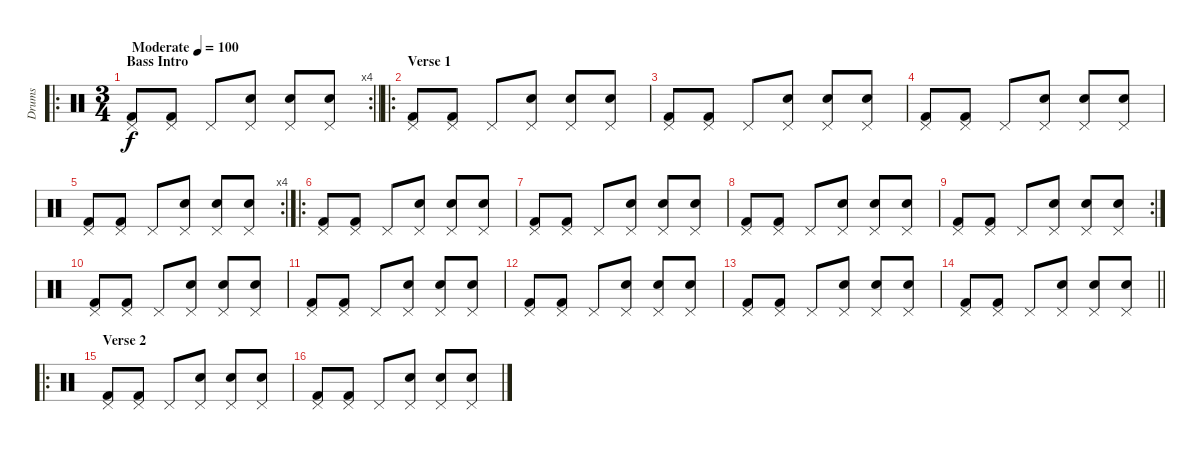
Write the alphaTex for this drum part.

\track ("Drums" "Drums") {instrument percussion}
\staff {score}
\articulation defaults
\ro
\rc 4
\ts (3 4)
\section ("" "Bass Intro")
\tempo (100 "Moderate")
\clef neutral
\barLineRight lightlight
\ks c
("Pedal Hi-Hat (hit)" "Kick (hit) 2").8{dy f} ("Pedal Hi-Hat (hit)" "Kick (hit) 2").8 "Pedal Hi-Hat (hit)".8 ("Pedal Hi-Hat (hit)" "Electric Snare (hit)").8 ("Pedal Hi-Hat (hit)" "Snare (hit) 2").8 ("Pedal Hi-Hat (hit)" "Snare (hit) 2").8 |
\ro
\section ("" "Verse 1")
("Pedal Hi-Hat (hit)" "Kick (hit) 2").8 ("Pedal Hi-Hat (hit)" "Kick (hit) 2").8 "Pedal Hi-Hat (hit)".8 ("Pedal Hi-Hat (hit)" "Electric Snare (hit)").8 ("Pedal Hi-Hat (hit)" "Snare (hit) 2").8 ("Pedal Hi-Hat (hit)" "Snare (hit) 2").8 |
("Pedal Hi-Hat (hit)" "Kick (hit) 2").8 ("Pedal Hi-Hat (hit)" "Kick (hit) 2").8 "Pedal Hi-Hat (hit)".8 ("Pedal Hi-Hat (hit)" "Electric Snare (hit)").8 ("Pedal Hi-Hat (hit)" "Snare (hit) 2").8 ("Pedal Hi-Hat (hit)" "Snare (hit) 2").8 |
("Pedal Hi-Hat (hit)" "Kick (hit) 2").8 ("Pedal Hi-Hat (hit)" "Kick (hit) 2").8 "Pedal Hi-Hat (hit)".8 ("Pedal Hi-Hat (hit)" "Electric Snare (hit)").8 ("Pedal Hi-Hat (hit)" "Snare (hit) 2").8 ("Pedal Hi-Hat (hit)" "Snare (hit) 2").8 |
\rc 4
("Pedal Hi-Hat (hit)" "Kick (hit) 2").8 ("Pedal Hi-Hat (hit)" "Kick (hit) 2").8 "Pedal Hi-Hat (hit)".8 ("Pedal Hi-Hat (hit)" "Electric Snare (hit)").8 ("Pedal Hi-Hat (hit)" "Snare (hit) 2").8 ("Pedal Hi-Hat (hit)" "Snare (hit) 2").8 |
\ro
("Pedal Hi-Hat (hit)" "Kick (hit) 2").8 ("Pedal Hi-Hat (hit)" "Kick (hit) 2").8 "Pedal Hi-Hat (hit)".8 ("Pedal Hi-Hat (hit)" "Electric Snare (hit)").8 ("Pedal Hi-Hat (hit)" "Snare (hit) 2").8 ("Pedal Hi-Hat (hit)" "Snare (hit) 2").8 |
("Pedal Hi-Hat (hit)" "Kick (hit) 2").8 ("Pedal Hi-Hat (hit)" "Kick (hit) 2").8 "Pedal Hi-Hat (hit)".8 ("Pedal Hi-Hat (hit)" "Electric Snare (hit)").8 ("Pedal Hi-Hat (hit)" "Snare (hit) 2").8 ("Pedal Hi-Hat (hit)" "Snare (hit) 2").8 |
("Pedal Hi-Hat (hit)" "Kick (hit) 2").8 ("Pedal Hi-Hat (hit)" "Kick (hit) 2").8 "Pedal Hi-Hat (hit)".8 ("Pedal Hi-Hat (hit)" "Electric Snare (hit)").8 ("Pedal Hi-Hat (hit)" "Snare (hit) 2").8 ("Pedal Hi-Hat (hit)" "Snare (hit) 2").8 |
\rc 2
("Pedal Hi-Hat (hit)" "Kick (hit) 2").8 ("Pedal Hi-Hat (hit)" "Kick (hit) 2").8 "Pedal Hi-Hat (hit)".8 ("Pedal Hi-Hat (hit)" "Electric Snare (hit)").8 ("Pedal Hi-Hat (hit)" "Snare (hit) 2").8 ("Pedal Hi-Hat (hit)" "Snare (hit) 2").8 |
("Pedal Hi-Hat (hit)" "Kick (hit) 2").8 ("Pedal Hi-Hat (hit)" "Kick (hit) 2").8 "Pedal Hi-Hat (hit)".8 ("Pedal Hi-Hat (hit)" "Electric Snare (hit)").8 ("Pedal Hi-Hat (hit)" "Snare (hit) 2").8 ("Pedal Hi-Hat (hit)" "Snare (hit) 2").8 |
("Pedal Hi-Hat (hit)" "Kick (hit) 2").8 ("Pedal Hi-Hat (hit)" "Kick (hit) 2").8 "Pedal Hi-Hat (hit)".8 ("Pedal Hi-Hat (hit)" "Electric Snare (hit)").8 ("Pedal Hi-Hat (hit)" "Snare (hit) 2").8 ("Pedal Hi-Hat (hit)" "Snare (hit) 2").8 |
("Pedal Hi-Hat (hit)" "Kick (hit) 2").8 ("Pedal Hi-Hat (hit)" "Kick (hit) 2").8 "Pedal Hi-Hat (hit)".8 ("Pedal Hi-Hat (hit)" "Electric Snare (hit)").8 ("Pedal Hi-Hat (hit)" "Snare (hit) 2").8 ("Pedal Hi-Hat (hit)" "Snare (hit) 2").8 |
("Pedal Hi-Hat (hit)" "Kick (hit) 2").8 ("Pedal Hi-Hat (hit)" "Kick (hit) 2").8 "Pedal Hi-Hat (hit)".8 ("Pedal Hi-Hat (hit)" "Electric Snare (hit)").8 ("Pedal Hi-Hat (hit)" "Snare (hit) 2").8 ("Pedal Hi-Hat (hit)" "Snare (hit) 2").8 |
\barLineRight lightlight
("Pedal Hi-Hat (hit)" "Kick (hit) 2").8 ("Pedal Hi-Hat (hit)" "Kick (hit) 2").8 "Pedal Hi-Hat (hit)".8 ("Pedal Hi-Hat (hit)" "Electric Snare (hit)").8 ("Pedal Hi-Hat (hit)" "Snare (hit) 2").8 ("Pedal Hi-Hat (hit)" "Snare (hit) 2").8 |
\ro
\section ("" "Verse 2")
("Pedal Hi-Hat (hit)" "Kick (hit) 2").8 ("Pedal Hi-Hat (hit)" "Kick (hit) 2").8 "Pedal Hi-Hat (hit)".8 ("Pedal Hi-Hat (hit)" "Electric Snare (hit)").8 ("Pedal Hi-Hat (hit)" "Snare (hit) 2").8 ("Pedal Hi-Hat (hit)" "Snare (hit) 2").8 |
("Pedal Hi-Hat (hit)" "Kick (hit) 2").8 ("Pedal Hi-Hat (hit)" "Kick (hit) 2").8 "Pedal Hi-Hat (hit)".8 ("Pedal Hi-Hat (hit)" "Electric Snare (hit)").8 ("Pedal Hi-Hat (hit)" "Snare (hit) 2").8 ("Pedal Hi-Hat (hit)" "Snare (hit) 2").8
